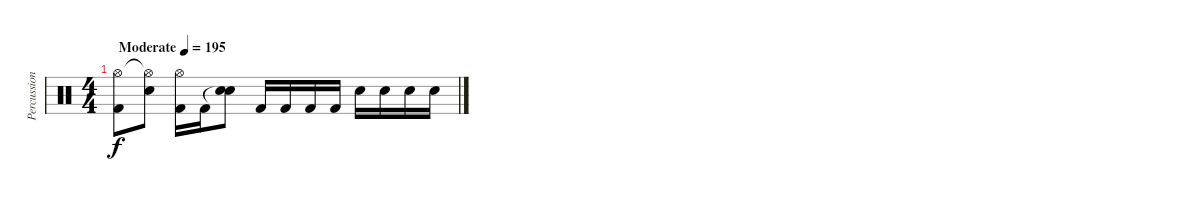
\track ("Percussion" "Percussion") {instrument percussion}
\staff {score}
\articulation defaults
\ts (4 4)
\tempo (195 "Moderate")
\clef neutral
\ks c
("Hi-Hat (open)" "Kick (hit) 2").8{dy f} ("Hi-Hat (open)"{t} "Electric Snare (hit)").8 ("Hi-Hat (open)" "Kick (hit) 2").16 "Kick (hit) 2".16 ("Snare (hit)"{t} "Electric Snare (hit)").8 "Kick (hit) 2".16 "Kick (hit) 2".16 "Kick (hit) 2".16 "Kick (hit) 2".16 "Electric Snare (hit)".16 "Electric Snare (hit)".16 "Electric Snare (hit)".16 "Electric Snare (hit)".16
